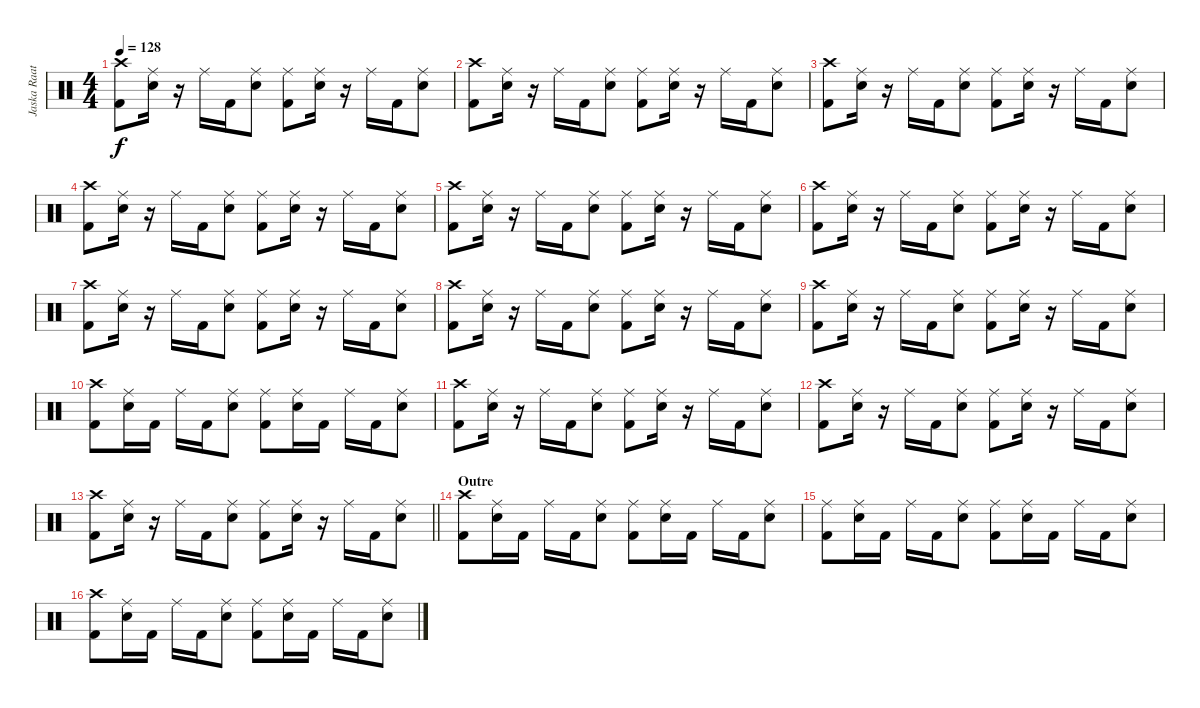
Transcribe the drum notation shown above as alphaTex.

\track ("Jaska Raatikainen" "Jaska Raat") {instrument percussion}
\staff {score}
\articulation defaults
\ts (4 4)
\tempo 128
\clef neutral
\ks c
("Crash high (hit)" "Kick (hit) 2").8{dy f} ("Ride (middle)" "Electric Snare (hit)").16 r.16 "Ride (middle)".16 "Kick (hit) 2".16 ("Ride (middle)" "Electric Snare (hit)").8 ("Ride (middle)" "Kick (hit) 2").8 ("Ride (middle)" "Electric Snare (hit)").16 r.16 "Ride (middle)".16 "Kick (hit) 2".16 ("Ride (middle)" "Electric Snare (hit)").8 |
("Crash high (hit)" "Kick (hit) 2").8 ("Ride (middle)" "Electric Snare (hit)").16 r.16 "Ride (middle)".16 "Kick (hit) 2".16 ("Ride (middle)" "Electric Snare (hit)").8 ("Ride (middle)" "Kick (hit) 2").8 ("Ride (middle)" "Electric Snare (hit)").16 r.16 "Ride (middle)".16 "Kick (hit) 2".16 ("Ride (middle)" "Electric Snare (hit)").8 |
("Crash high (hit)" "Kick (hit) 2").8 ("Ride (middle)" "Electric Snare (hit)").16 r.16 "Ride (middle)".16 "Kick (hit) 2".16 ("Ride (middle)" "Electric Snare (hit)").8 ("Ride (middle)" "Kick (hit) 2").8 ("Ride (middle)" "Electric Snare (hit)").16 r.16 "Ride (middle)".16 "Kick (hit) 2".16 ("Ride (middle)" "Electric Snare (hit)").8 |
("Crash high (hit)" "Kick (hit) 2").8 ("Ride (middle)" "Electric Snare (hit)").16 r.16 "Ride (middle)".16 "Kick (hit) 2".16 ("Ride (middle)" "Electric Snare (hit)").8 ("Ride (middle)" "Kick (hit) 2").8 ("Ride (middle)" "Electric Snare (hit)").16 r.16 "Ride (middle)".16 "Kick (hit) 2".16 ("Ride (middle)" "Electric Snare (hit)").8 |
("Crash high (hit)" "Kick (hit) 2").8 ("Ride (middle)" "Electric Snare (hit)").16 r.16 "Ride (middle)".16 "Kick (hit) 2".16 ("Ride (middle)" "Electric Snare (hit)").8 ("Ride (middle)" "Kick (hit) 2").8 ("Ride (middle)" "Electric Snare (hit)").16 r.16 "Ride (middle)".16 "Kick (hit) 2".16 ("Ride (middle)" "Electric Snare (hit)").8 |
("Crash high (hit)" "Kick (hit) 2").8 ("Ride (middle)" "Electric Snare (hit)").16 r.16 "Ride (middle)".16 "Kick (hit) 2".16 ("Ride (middle)" "Electric Snare (hit)").8 ("Ride (middle)" "Kick (hit) 2").8 ("Ride (middle)" "Electric Snare (hit)").16 r.16 "Ride (middle)".16 "Kick (hit) 2".16 ("Ride (middle)" "Electric Snare (hit)").8 |
("Crash high (hit)" "Kick (hit) 2").8 ("Ride (middle)" "Electric Snare (hit)").16 r.16 "Ride (middle)".16 "Kick (hit) 2".16 ("Ride (middle)" "Electric Snare (hit)").8 ("Ride (middle)" "Kick (hit) 2").8 ("Ride (middle)" "Electric Snare (hit)").16 r.16 "Ride (middle)".16 "Kick (hit) 2".16 ("Ride (middle)" "Electric Snare (hit)").8 |
("Crash high (hit)" "Kick (hit) 2").8 ("Ride (middle)" "Electric Snare (hit)").16 r.16 "Ride (middle)".16 "Kick (hit) 2".16 ("Ride (middle)" "Electric Snare (hit)").8 ("Ride (middle)" "Kick (hit) 2").8 ("Ride (middle)" "Electric Snare (hit)").16 r.16 "Ride (middle)".16 "Kick (hit) 2".16 ("Ride (middle)" "Electric Snare (hit)").8 |
("Crash high (hit)" "Kick (hit) 2").8 ("Ride (middle)" "Electric Snare (hit)").16 r.16 "Ride (middle)".16 "Kick (hit) 2".16 ("Ride (middle)" "Electric Snare (hit)").8 ("Ride (middle)" "Kick (hit) 2").8 ("Ride (middle)" "Electric Snare (hit)").16 r.16 "Ride (middle)".16 "Kick (hit) 2".16 ("Ride (middle)" "Electric Snare (hit)").8 |
("Crash high (hit)" "Kick (hit) 2").8 ("Ride (middle)" "Electric Snare (hit)").16 "Kick (hit) 2".16 "Ride (middle)".16 "Kick (hit) 2".16 ("Ride (middle)" "Electric Snare (hit)").8 ("Ride (middle)" "Kick (hit) 2").8 ("Ride (middle)" "Electric Snare (hit)").16 "Kick (hit) 2".16 "Ride (middle)".16 "Kick (hit) 2".16 ("Ride (middle)" "Electric Snare (hit)").8 |
("Crash high (hit)" "Kick (hit) 2").8 ("Ride (middle)" "Electric Snare (hit)").16 r.16 "Ride (middle)".16 "Kick (hit) 2".16 ("Ride (middle)" "Electric Snare (hit)").8 ("Ride (middle)" "Kick (hit) 2").8 ("Ride (middle)" "Electric Snare (hit)").16 r.16 "Ride (middle)".16 "Kick (hit) 2".16 ("Ride (middle)" "Electric Snare (hit)").8 |
("Crash high (hit)" "Kick (hit) 2").8 ("Ride (middle)" "Electric Snare (hit)").16 r.16 "Ride (middle)".16 "Kick (hit) 2".16 ("Ride (middle)" "Electric Snare (hit)").8 ("Ride (middle)" "Kick (hit) 2").8 ("Ride (middle)" "Electric Snare (hit)").16 r.16 "Ride (middle)".16 "Kick (hit) 2".16 ("Ride (middle)" "Electric Snare (hit)").8 |
\barLineRight lightlight
("Crash high (hit)" "Kick (hit) 2").8 ("Ride (middle)" "Electric Snare (hit)").16 r.16 "Ride (middle)".16 "Kick (hit) 2".16 ("Ride (middle)" "Electric Snare (hit)").8 ("Ride (middle)" "Kick (hit) 2").8 ("Ride (middle)" "Electric Snare (hit)").16 r.16 "Ride (middle)".16 "Kick (hit) 2".16 ("Ride (middle)" "Electric Snare (hit)").8 |
\section ("" "Outre")
("Crash high (hit)" "Kick (hit) 2").8 ("Ride (middle)" "Electric Snare (hit)").16 "Kick (hit) 2".16 "Ride (middle)".16 "Kick (hit) 2".16 ("Ride (middle)" "Electric Snare (hit)").8 ("Ride (middle)" "Kick (hit) 2").8 ("Ride (middle)" "Electric Snare (hit)").16 "Kick (hit) 2".16 "Ride (middle)".16 "Kick (hit) 2".16 ("Ride (middle)" "Electric Snare (hit)").8 |
("Ride (middle)" "Kick (hit) 2").8 ("Ride (middle)" "Electric Snare (hit)").16 "Kick (hit) 2".16 "Ride (middle)".16 "Kick (hit) 2".16 ("Ride (middle)" "Electric Snare (hit)").8 ("Ride (middle)" "Kick (hit) 2").8 ("Ride (middle)" "Electric Snare (hit)").16 "Kick (hit) 2".16 "Ride (middle)".16 "Kick (hit) 2".16 ("Ride (middle)" "Electric Snare (hit)").8 |
("Crash high (hit)" "Kick (hit) 2").8 ("Ride (middle)" "Electric Snare (hit)").16 "Kick (hit) 2".16 "Ride (middle)".16 "Kick (hit) 2".16 ("Ride (middle)" "Electric Snare (hit)").8 ("Ride (middle)" "Kick (hit) 2").8 ("Ride (middle)" "Electric Snare (hit)").16 "Kick (hit) 2".16 "Ride (middle)".16 "Kick (hit) 2".16 ("Ride (middle)" "Electric Snare (hit)").8
